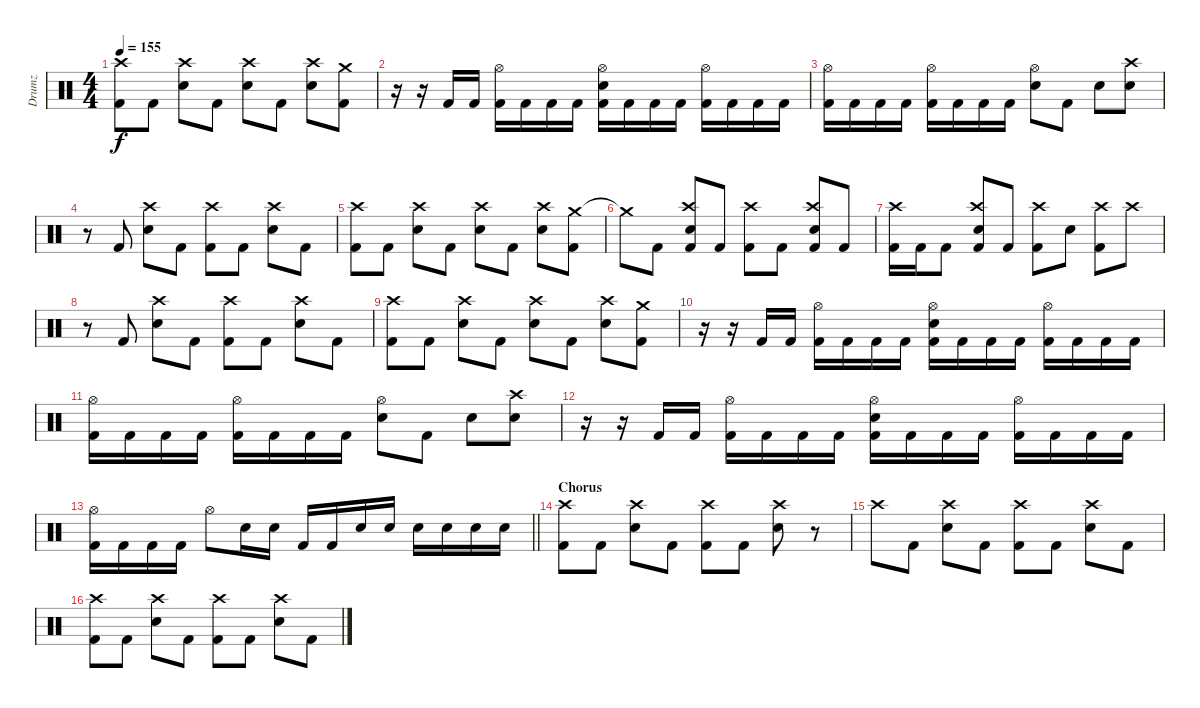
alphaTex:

\track ("Drumz" "Drumz") {instrument percussion}
\staff {score}
\articulation defaults
\ts (4 4)
\tempo 155
\clef neutral
\ks c
("Kick (hit) 2" "Crash high (hit)").8{dy f} "Kick (hit) 2".8 ("Electric Snare (hit)" "Crash high (hit)").8 "Kick (hit) 2".8 ("Electric Snare (hit)" "Crash high (hit)").8 "Kick (hit) 2".8 ("Electric Snare (hit)" "Crash high (hit)").8 ("Crash medium (hit)" "Kick (hit) 2").8 |
r.16 r.16 "Kick (hit) 2".16 "Kick (hit) 2".16 ("Kick (hit) 2" "Hi-Hat (open)").16 "Kick (hit) 2".16 "Kick (hit) 2".16 "Kick (hit) 2".16 ("Kick (hit) 2" "Hi-Hat (open)" "Electric Snare (hit)").16 "Kick (hit) 2".16 "Kick (hit) 2".16 "Kick (hit) 2".16 ("Kick (hit) 2" "Hi-Hat (open)").16 "Kick (hit) 2".16 "Kick (hit) 2".16 "Kick (hit) 2".16 |
("Kick (hit) 2" "Hi-Hat (open)").16 "Kick (hit) 2".16 "Kick (hit) 2".16 "Kick (hit) 2".16 ("Kick (hit) 2" "Hi-Hat (open)").16 "Kick (hit) 2".16 "Kick (hit) 2".16 "Kick (hit) 2".16 ("Hi-Hat (open)" "Electric Snare (hit)").8 "Kick (hit) 2".8 "Electric Snare (hit)".8 ("Crash high (hit)" "Electric Snare (hit)").8 |
r.8 "Kick (hit) 2".8 ("Electric Snare (hit)" "Crash high (hit)").8 "Kick (hit) 2".8 ("Kick (hit) 2" "Crash high (hit)").8 "Kick (hit) 2".8 ("Electric Snare (hit)" "Crash high (hit)").8 "Kick (hit) 2".8 |
("Kick (hit) 2" "Crash high (hit)").8 "Kick (hit) 2".8 ("Electric Snare (hit)" "Crash high (hit)").8 "Kick (hit) 2".8 ("Electric Snare (hit)" "Crash high (hit)").8 "Kick (hit) 2".8 ("Electric Snare (hit)" "Crash high (hit)").8 ("Crash medium (hit)" "Kick (hit) 2").8 |
"Crash medium (hit)"{t}.8 "Kick (hit) 2".8 ("Kick (hit) 2" "Crash high (hit)" "Electric Snare (hit)").8 "Kick (hit) 2".8 ("Kick (hit) 2" "Crash high (hit)").8 "Kick (hit) 2".8 ("Kick (hit) 2" "Crash high (hit)" "Electric Snare (hit)").8 "Kick (hit) 2".8 |
("Kick (hit) 2" "Crash high (hit)").16 "Kick (hit) 2".16 "Kick (hit) 2".8 ("Kick (hit) 2" "Crash high (hit)" "Electric Snare (hit)").8 "Kick (hit) 2".8 ("Kick (hit) 2" "Crash high (hit)").8 "Electric Snare (hit)".8 ("Kick (hit) 2" "Crash high (hit)").8 "Crash high (hit)".8 |
r.8 "Kick (hit) 2".8 ("Electric Snare (hit)" "Crash high (hit)").8 "Kick (hit) 2".8 ("Kick (hit) 2" "Crash high (hit)").8 "Kick (hit) 2".8 ("Electric Snare (hit)" "Crash high (hit)").8 "Kick (hit) 2".8 |
("Kick (hit) 2" "Crash high (hit)").8 "Kick (hit) 2".8 ("Electric Snare (hit)" "Crash high (hit)").8 "Kick (hit) 2".8 ("Electric Snare (hit)" "Crash high (hit)").8 "Kick (hit) 2".8 ("Electric Snare (hit)" "Crash high (hit)").8 ("Crash medium (hit)" "Kick (hit) 2").8 |
r.16 r.16 "Kick (hit) 2".16 "Kick (hit) 2".16 ("Kick (hit) 2" "Hi-Hat (open)").16 "Kick (hit) 2".16 "Kick (hit) 2".16 "Kick (hit) 2".16 ("Kick (hit) 2" "Hi-Hat (open)" "Electric Snare (hit)").16 "Kick (hit) 2".16 "Kick (hit) 2".16 "Kick (hit) 2".16 ("Kick (hit) 2" "Hi-Hat (open)").16 "Kick (hit) 2".16 "Kick (hit) 2".16 "Kick (hit) 2".16 |
("Kick (hit) 2" "Hi-Hat (open)").16 "Kick (hit) 2".16 "Kick (hit) 2".16 "Kick (hit) 2".16 ("Kick (hit) 2" "Hi-Hat (open)").16 "Kick (hit) 2".16 "Kick (hit) 2".16 "Kick (hit) 2".16 ("Hi-Hat (open)" "Electric Snare (hit)").8 "Kick (hit) 2".8 "Electric Snare (hit)".8 ("Crash high (hit)" "Electric Snare (hit)").8 |
r.16 r.16 "Kick (hit) 2".16 "Kick (hit) 2".16 ("Kick (hit) 2" "Hi-Hat (open)").16 "Kick (hit) 2".16 "Kick (hit) 2".16 "Kick (hit) 2".16 ("Kick (hit) 2" "Hi-Hat (open)" "Electric Snare (hit)").16 "Kick (hit) 2".16 "Kick (hit) 2".16 "Kick (hit) 2".16 ("Kick (hit) 2" "Hi-Hat (open)").16 "Kick (hit) 2".16 "Kick (hit) 2".16 "Kick (hit) 2".16 |
\barLineRight lightlight
("Kick (hit) 2" "Hi-Hat (open)").16 "Kick (hit) 2".16 "Kick (hit) 2".16 "Kick (hit) 2".16 "Hi-Hat (open)".8 "Electric Snare (hit)".16 "Electric Snare (hit)".16 "Kick (hit) 2".16 "Kick (hit) 2".16 "Electric Snare (hit)".16 "Electric Snare (hit)".16 "Electric Snare (hit)".16 "Electric Snare (hit)".16 "Electric Snare (hit)".16 "Electric Snare (hit)".16 |
\section ("" "Chorus")
("Kick (hit) 2" "Crash high (hit)").8 "Kick (hit) 2".8 ("Electric Snare (hit)" "Crash high (hit)").8 "Kick (hit) 2".8 ("Kick (hit) 2" "Crash high (hit)").8 "Kick (hit) 2".8 ("Electric Snare (hit)" "Crash high (hit)").8 r.8 |
"Crash high (hit)".8 "Kick (hit) 2".8 ("Electric Snare (hit)" "Crash high (hit)").8 "Kick (hit) 2".8 ("Kick (hit) 2" "Crash high (hit)").8 "Kick (hit) 2".8 ("Electric Snare (hit)" "Crash high (hit)").8 "Kick (hit) 2".8 |
("Kick (hit) 2" "Crash high (hit)").8 "Kick (hit) 2".8 ("Electric Snare (hit)" "Crash high (hit)").8 "Kick (hit) 2".8 ("Kick (hit) 2" "Crash high (hit)").8 "Kick (hit) 2".8 ("Electric Snare (hit)" "Crash high (hit)").8 "Kick (hit) 2".8
